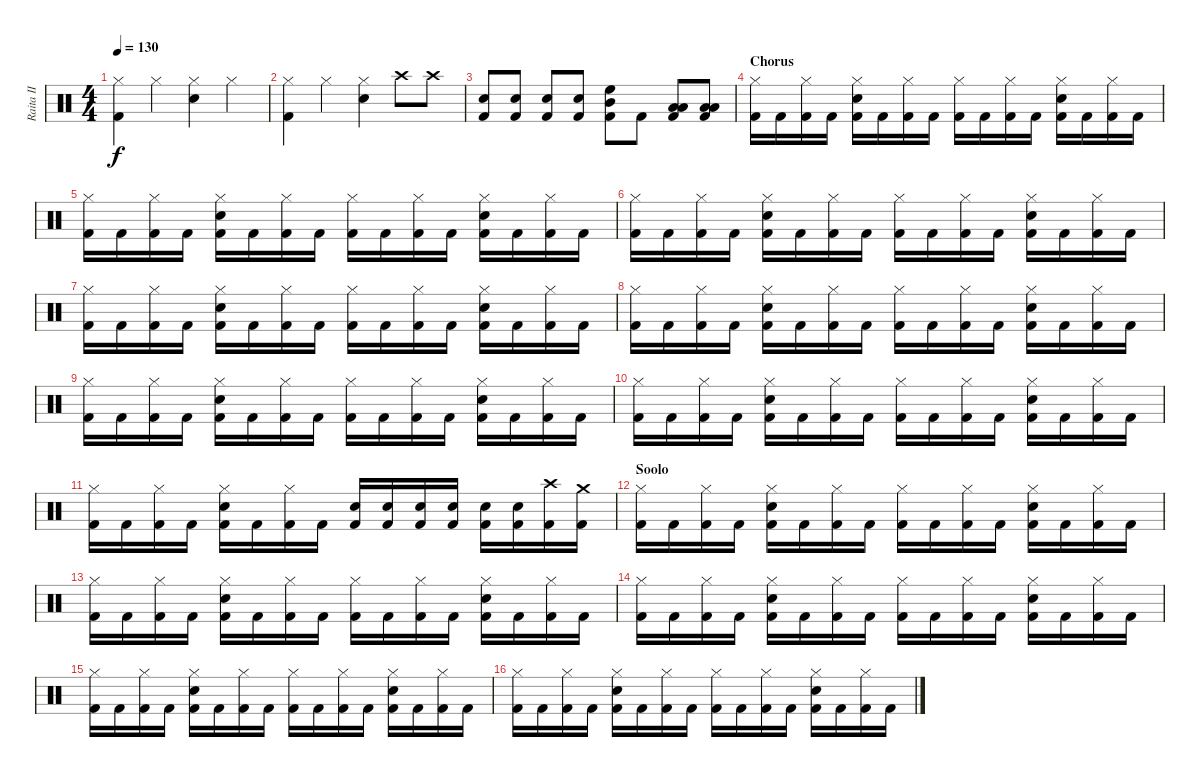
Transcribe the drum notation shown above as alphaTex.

\track ("Raita II" "Raita II") {instrument percussion}
\staff {score}
\articulation defaults
\ts (4 4)
\tempo 130
\clef neutral
\ks c
("Kick (hit) 2" "Hi-Hat (closed)").4{dy f} "Hi-Hat (closed)".4 ("Hi-Hat (closed)" "Snare (hit) 2").4 "Hi-Hat (closed)".4 |
("Kick (hit) 2" "Hi-Hat (closed)").4 "Hi-Hat (closed)".4 ("Hi-Hat (closed)" "Snare (hit) 2").4 "Crash high (hit)".8 "Crash high (hit)".8 |
("Kick (hit) 2" "Snare (hit) 2").8 ("Kick (hit) 2" "Snare (hit) 2").8 ("Kick (hit) 2" "Snare (hit) 2").8 ("Kick (hit) 2" "Snare (hit) 2").8 ("Kick (hit) 2" "Mid Tom (hit)" "High Floor Tom (hit)").8 "Kick (hit) 2".8 ("Kick (hit) 2" "Low Floor Tom (hit)" "Low Tom (hit)").8 ("Kick (hit) 2" "Low Floor Tom (hit)" "Low Tom (hit)").8 |
\section ("" "Chorus")
("Kick (hit) 2" "Hi-Hat (closed)").16 "Kick (hit) 2".16 ("Kick (hit) 2" "Hi-Hat (closed)").16 "Kick (hit) 2".16 ("Kick (hit) 2" "Hi-Hat (closed)" "Snare (hit) 2").16 "Kick (hit) 2".16 ("Kick (hit) 2" "Hi-Hat (closed)").16 "Kick (hit) 2".16 ("Kick (hit) 2" "Hi-Hat (closed)").16 "Kick (hit) 2".16 ("Kick (hit) 2" "Hi-Hat (closed)").16 "Kick (hit) 2".16 ("Kick (hit) 2" "Hi-Hat (closed)" "Snare (hit) 2").16 "Kick (hit) 2".16 ("Kick (hit) 2" "Hi-Hat (closed)").16 "Kick (hit) 2".16 |
("Kick (hit) 2" "Hi-Hat (closed)").16 "Kick (hit) 2".16 ("Kick (hit) 2" "Hi-Hat (closed)").16 "Kick (hit) 2".16 ("Kick (hit) 2" "Hi-Hat (closed)" "Snare (hit) 2").16 "Kick (hit) 2".16 ("Kick (hit) 2" "Hi-Hat (closed)").16 "Kick (hit) 2".16 ("Kick (hit) 2" "Hi-Hat (closed)").16 "Kick (hit) 2".16 ("Kick (hit) 2" "Hi-Hat (closed)").16 "Kick (hit) 2".16 ("Kick (hit) 2" "Hi-Hat (closed)" "Snare (hit) 2").16 "Kick (hit) 2".16 ("Kick (hit) 2" "Hi-Hat (closed)").16 "Kick (hit) 2".16 |
("Kick (hit) 2" "Hi-Hat (closed)").16 "Kick (hit) 2".16 ("Kick (hit) 2" "Hi-Hat (closed)").16 "Kick (hit) 2".16 ("Kick (hit) 2" "Hi-Hat (closed)" "Snare (hit) 2").16 "Kick (hit) 2".16 ("Kick (hit) 2" "Hi-Hat (closed)").16 "Kick (hit) 2".16 ("Kick (hit) 2" "Hi-Hat (closed)").16 "Kick (hit) 2".16 ("Kick (hit) 2" "Hi-Hat (closed)").16 "Kick (hit) 2".16 ("Kick (hit) 2" "Hi-Hat (closed)" "Snare (hit) 2").16 "Kick (hit) 2".16 ("Kick (hit) 2" "Hi-Hat (closed)").16 "Kick (hit) 2".16 |
("Kick (hit) 2" "Hi-Hat (closed)").16 "Kick (hit) 2".16 ("Kick (hit) 2" "Hi-Hat (closed)").16 "Kick (hit) 2".16 ("Kick (hit) 2" "Hi-Hat (closed)" "Snare (hit) 2").16 "Kick (hit) 2".16 ("Kick (hit) 2" "Hi-Hat (closed)").16 "Kick (hit) 2".16 ("Kick (hit) 2" "Hi-Hat (closed)").16 "Kick (hit) 2".16 ("Kick (hit) 2" "Hi-Hat (closed)").16 "Kick (hit) 2".16 ("Kick (hit) 2" "Hi-Hat (closed)" "Snare (hit) 2").16 "Kick (hit) 2".16 ("Kick (hit) 2" "Hi-Hat (closed)").16 "Kick (hit) 2".16 |
("Kick (hit) 2" "Hi-Hat (closed)").16 "Kick (hit) 2".16 ("Kick (hit) 2" "Hi-Hat (closed)").16 "Kick (hit) 2".16 ("Kick (hit) 2" "Hi-Hat (closed)" "Snare (hit) 2").16 "Kick (hit) 2".16 ("Kick (hit) 2" "Hi-Hat (closed)").16 "Kick (hit) 2".16 ("Kick (hit) 2" "Hi-Hat (closed)").16 "Kick (hit) 2".16 ("Kick (hit) 2" "Hi-Hat (closed)").16 "Kick (hit) 2".16 ("Kick (hit) 2" "Hi-Hat (closed)" "Snare (hit) 2").16 "Kick (hit) 2".16 ("Kick (hit) 2" "Hi-Hat (closed)").16 "Kick (hit) 2".16 |
("Kick (hit) 2" "Hi-Hat (closed)").16 "Kick (hit) 2".16 ("Kick (hit) 2" "Hi-Hat (closed)").16 "Kick (hit) 2".16 ("Kick (hit) 2" "Hi-Hat (closed)" "Snare (hit) 2").16 "Kick (hit) 2".16 ("Kick (hit) 2" "Hi-Hat (closed)").16 "Kick (hit) 2".16 ("Kick (hit) 2" "Hi-Hat (closed)").16 "Kick (hit) 2".16 ("Kick (hit) 2" "Hi-Hat (closed)").16 "Kick (hit) 2".16 ("Kick (hit) 2" "Hi-Hat (closed)" "Snare (hit) 2").16 "Kick (hit) 2".16 ("Kick (hit) 2" "Hi-Hat (closed)").16 "Kick (hit) 2".16 |
("Kick (hit) 2" "Hi-Hat (closed)").16 "Kick (hit) 2".16 ("Kick (hit) 2" "Hi-Hat (closed)").16 "Kick (hit) 2".16 ("Kick (hit) 2" "Hi-Hat (closed)" "Snare (hit) 2").16 "Kick (hit) 2".16 ("Kick (hit) 2" "Hi-Hat (closed)").16 "Kick (hit) 2".16 ("Kick (hit) 2" "Hi-Hat (closed)").16 "Kick (hit) 2".16 ("Kick (hit) 2" "Hi-Hat (closed)").16 "Kick (hit) 2".16 ("Kick (hit) 2" "Hi-Hat (closed)" "Snare (hit) 2").16 "Kick (hit) 2".16 ("Kick (hit) 2" "Hi-Hat (closed)").16 "Kick (hit) 2".16 |
("Kick (hit) 2" "Hi-Hat (closed)").16 "Kick (hit) 2".16 ("Kick (hit) 2" "Hi-Hat (closed)").16 "Kick (hit) 2".16 ("Kick (hit) 2" "Hi-Hat (closed)" "Snare (hit) 2").16 "Kick (hit) 2".16 ("Kick (hit) 2" "Hi-Hat (closed)").16 "Kick (hit) 2".16 ("Kick (hit) 2" "Snare (hit) 2").16 ("Kick (hit) 2" "Snare (hit) 2").16 ("Kick (hit) 2" "Snare (hit) 2").16 ("Kick (hit) 2" "Snare (hit) 2").16 ("Kick (hit) 2" "Snare (hit) 2").16 ("Kick (hit) 2" "Snare (hit) 2").16 ("Kick (hit) 2" "Crash high (hit)").16 ("Kick (hit) 2" "Crash medium (hit)").16 |
\section ("" "Soolo")
("Kick (hit) 2" "Hi-Hat (closed)").16 "Kick (hit) 2".16 ("Kick (hit) 2" "Hi-Hat (closed)").16 "Kick (hit) 2".16 ("Kick (hit) 2" "Hi-Hat (closed)" "Snare (hit) 2").16 "Kick (hit) 2".16 ("Kick (hit) 2" "Hi-Hat (closed)").16 "Kick (hit) 2".16 ("Kick (hit) 2" "Hi-Hat (closed)").16 "Kick (hit) 2".16 ("Kick (hit) 2" "Hi-Hat (closed)").16 "Kick (hit) 2".16 ("Kick (hit) 2" "Hi-Hat (closed)" "Snare (hit) 2").16 "Kick (hit) 2".16 ("Kick (hit) 2" "Hi-Hat (closed)").16 "Kick (hit) 2".16 |
("Kick (hit) 2" "Hi-Hat (closed)").16 "Kick (hit) 2".16 ("Kick (hit) 2" "Hi-Hat (closed)").16 "Kick (hit) 2".16 ("Kick (hit) 2" "Hi-Hat (closed)" "Snare (hit) 2").16 "Kick (hit) 2".16 ("Kick (hit) 2" "Hi-Hat (closed)").16 "Kick (hit) 2".16 ("Kick (hit) 2" "Hi-Hat (closed)").16 "Kick (hit) 2".16 ("Kick (hit) 2" "Hi-Hat (closed)").16 "Kick (hit) 2".16 ("Kick (hit) 2" "Hi-Hat (closed)" "Snare (hit) 2").16 "Kick (hit) 2".16 ("Kick (hit) 2" "Hi-Hat (closed)").16 "Kick (hit) 2".16 |
("Kick (hit) 2" "Hi-Hat (closed)").16 "Kick (hit) 2".16 ("Kick (hit) 2" "Hi-Hat (closed)").16 "Kick (hit) 2".16 ("Kick (hit) 2" "Hi-Hat (closed)" "Snare (hit) 2").16 "Kick (hit) 2".16 ("Kick (hit) 2" "Hi-Hat (closed)").16 "Kick (hit) 2".16 ("Kick (hit) 2" "Hi-Hat (closed)").16 "Kick (hit) 2".16 ("Kick (hit) 2" "Hi-Hat (closed)").16 "Kick (hit) 2".16 ("Kick (hit) 2" "Hi-Hat (closed)" "Snare (hit) 2").16 "Kick (hit) 2".16 ("Kick (hit) 2" "Hi-Hat (closed)").16 "Kick (hit) 2".16 |
("Kick (hit) 2" "Hi-Hat (closed)").16 "Kick (hit) 2".16 ("Kick (hit) 2" "Hi-Hat (closed)").16 "Kick (hit) 2".16 ("Kick (hit) 2" "Hi-Hat (closed)" "Snare (hit) 2").16 "Kick (hit) 2".16 ("Kick (hit) 2" "Hi-Hat (closed)").16 "Kick (hit) 2".16 ("Kick (hit) 2" "Hi-Hat (closed)").16 "Kick (hit) 2".16 ("Kick (hit) 2" "Hi-Hat (closed)").16 "Kick (hit) 2".16 ("Kick (hit) 2" "Hi-Hat (closed)" "Snare (hit) 2").16 "Kick (hit) 2".16 ("Kick (hit) 2" "Hi-Hat (closed)").16 "Kick (hit) 2".16 |
("Kick (hit) 2" "Hi-Hat (closed)").16 "Kick (hit) 2".16 ("Kick (hit) 2" "Hi-Hat (closed)").16 "Kick (hit) 2".16 ("Kick (hit) 2" "Hi-Hat (closed)" "Snare (hit) 2").16 "Kick (hit) 2".16 ("Kick (hit) 2" "Hi-Hat (closed)").16 "Kick (hit) 2".16 ("Kick (hit) 2" "Hi-Hat (closed)").16 "Kick (hit) 2".16 ("Kick (hit) 2" "Hi-Hat (closed)").16 "Kick (hit) 2".16 ("Kick (hit) 2" "Hi-Hat (closed)" "Snare (hit) 2").16 "Kick (hit) 2".16 ("Kick (hit) 2" "Hi-Hat (closed)").16 "Kick (hit) 2".16
